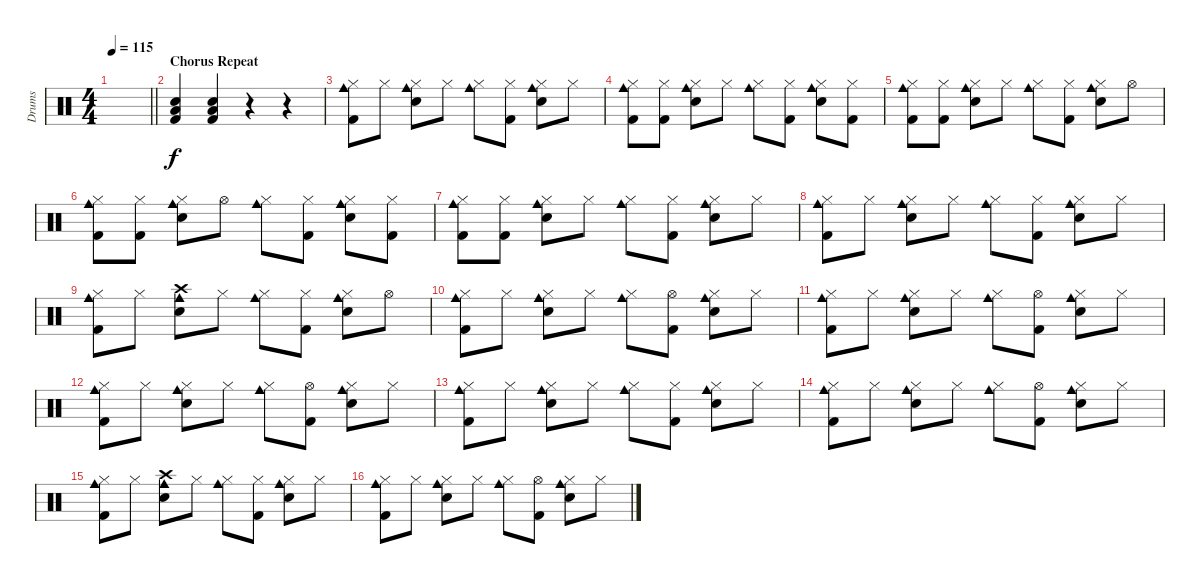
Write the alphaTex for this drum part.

\track ("Drums" "Drums") {instrument percussion}
\staff {score}
\articulation defaults
\ts (4 4)
\tempo 115
\clef neutral
\barLineRight lightlight
\ks c
|
\section ("" "Chorus Repeat")
("Hand Clap (hit)" "Low Floor Tom (hit)" "Kick (hit) 2").4 ("Hand Clap (hit)" "Low Floor Tom (hit)" "Kick (hit) 2").4 r.4 r.4 |
("Hi-Hat (closed)" "Cowbell medium (hit)" "Kick (hit) 2").8 "Hi-Hat (closed)".8 ("Hi-Hat (closed)" "Cowbell medium (hit)" "Snare (hit) 2").8 "Hi-Hat (closed)".8 ("Hi-Hat (closed)" "Cowbell medium (hit)").8 ("Hi-Hat (closed)" "Kick (hit) 2").8 ("Hi-Hat (closed)" "Cowbell medium (hit)" "Snare (hit) 2").8 "Hi-Hat (closed)".8 |
("Hi-Hat (closed)" "Cowbell medium (hit)" "Kick (hit) 2").8 ("Hi-Hat (closed)" "Kick (hit) 2").8 ("Hi-Hat (closed)" "Cowbell medium (hit)" "Snare (hit) 2").8 "Hi-Hat (closed)".8 ("Hi-Hat (closed)" "Cowbell medium (hit)").8 ("Hi-Hat (closed)" "Kick (hit) 2").8 ("Hi-Hat (closed)" "Cowbell medium (hit)" "Snare (hit) 2").8 ("Hi-Hat (closed)" "Kick (hit) 2").8 |
("Hi-Hat (closed)" "Cowbell medium (hit)" "Kick (hit) 2").8 ("Hi-Hat (closed)" "Kick (hit) 2").8 ("Hi-Hat (closed)" "Cowbell medium (hit)" "Snare (hit) 2").8 "Hi-Hat (closed)".8 ("Hi-Hat (closed)" "Cowbell medium (hit)").8 ("Hi-Hat (closed)" "Kick (hit) 2").8 ("Hi-Hat (closed)" "Cowbell medium (hit)" "Snare (hit) 2").8 "Hi-Hat (open)".8 |
("Hi-Hat (closed)" "Cowbell medium (hit)" "Kick (hit) 2").8 ("Hi-Hat (closed)" "Kick (hit) 2").8 ("Hi-Hat (closed)" "Cowbell medium (hit)" "Snare (hit) 2").8 "Hi-Hat (open)".8 ("Hi-Hat (closed)" "Cowbell medium (hit)").8 ("Hi-Hat (closed)" "Kick (hit) 2").8 ("Hi-Hat (closed)" "Cowbell medium (hit)" "Snare (hit) 2").8 ("Hi-Hat (closed)" "Kick (hit) 2").8 |
("Hi-Hat (closed)" "Cowbell medium (hit)" "Kick (hit) 2").8 ("Hi-Hat (closed)" "Kick (hit) 2").8 ("Hi-Hat (closed)" "Cowbell medium (hit)" "Snare (hit) 2").8 "Hi-Hat (closed)".8 ("Hi-Hat (closed)" "Cowbell medium (hit)").8 ("Hi-Hat (closed)" "Kick (hit) 2").8 ("Hi-Hat (closed)" "Cowbell medium (hit)" "Snare (hit) 2").8 "Hi-Hat (closed)".8 |
("Hi-Hat (closed)" "Cowbell medium (hit)" "Kick (hit) 2").8 "Hi-Hat (closed)".8 ("Hi-Hat (closed)" "Cowbell medium (hit)" "Snare (hit) 2").8 "Hi-Hat (closed)".8 ("Hi-Hat (closed)" "Cowbell medium (hit)").8 ("Hi-Hat (closed)" "Kick (hit) 2").8 ("Hi-Hat (closed)" "Cowbell medium (hit)" "Snare (hit) 2").8 "Hi-Hat (closed)".8 |
("Hi-Hat (closed)" "Cowbell medium (hit)" "Kick (hit) 2").8 "Hi-Hat (closed)".8 ("Crash high (hit)" "Cowbell medium (hit)" "Snare (hit) 2").8 "Hi-Hat (closed)".8 ("Hi-Hat (closed)" "Cowbell medium (hit)").8 ("Hi-Hat (closed)" "Kick (hit) 2").8 ("Hi-Hat (closed)" "Cowbell medium (hit)" "Snare (hit) 2").8 "Hi-Hat (open)".8 |
("Hi-Hat (closed)" "Cowbell medium (hit)" "Kick (hit) 2").8 "Hi-Hat (closed)".8 ("Hi-Hat (closed)" "Cowbell medium (hit)" "Snare (hit) 2").8 "Hi-Hat (closed)".8 ("Hi-Hat (closed)" "Cowbell medium (hit)").8 ("Hi-Hat (open)" "Kick (hit) 2").8 ("Hi-Hat (closed)" "Cowbell medium (hit)" "Snare (hit) 2").8 "Hi-Hat (closed)".8 |
("Hi-Hat (closed)" "Cowbell medium (hit)" "Kick (hit) 2").8 "Hi-Hat (closed)".8 ("Hi-Hat (closed)" "Cowbell medium (hit)" "Snare (hit) 2").8 "Hi-Hat (closed)".8 ("Hi-Hat (closed)" "Cowbell medium (hit)").8 ("Hi-Hat (open)" "Kick (hit) 2").8 ("Hi-Hat (closed)" "Cowbell medium (hit)" "Snare (hit) 2").8 "Hi-Hat (closed)".8 |
("Hi-Hat (closed)" "Cowbell medium (hit)" "Kick (hit) 2").8 "Hi-Hat (closed)".8 ("Hi-Hat (closed)" "Cowbell medium (hit)" "Snare (hit) 2").8 "Hi-Hat (closed)".8 ("Hi-Hat (closed)" "Cowbell medium (hit)").8 ("Hi-Hat (open)" "Kick (hit) 2").8 ("Hi-Hat (closed)" "Cowbell medium (hit)" "Snare (hit) 2").8 "Hi-Hat (closed)".8 |
("Hi-Hat (closed)" "Cowbell medium (hit)" "Kick (hit) 2").8 "Hi-Hat (closed)".8 ("Hi-Hat (closed)" "Cowbell medium (hit)" "Snare (hit) 2").8 "Hi-Hat (closed)".8 ("Hi-Hat (closed)" "Cowbell medium (hit)").8 ("Hi-Hat (closed)" "Kick (hit) 2").8 ("Hi-Hat (closed)" "Cowbell medium (hit)" "Snare (hit) 2").8 "Hi-Hat (closed)".8 |
("Hi-Hat (closed)" "Cowbell medium (hit)" "Kick (hit) 2").8 "Hi-Hat (closed)".8 ("Hi-Hat (closed)" "Cowbell medium (hit)" "Snare (hit) 2").8 "Hi-Hat (closed)".8 ("Hi-Hat (closed)" "Cowbell medium (hit)").8 ("Hi-Hat (open)" "Kick (hit) 2").8 ("Hi-Hat (closed)" "Cowbell medium (hit)" "Snare (hit) 2").8 "Hi-Hat (closed)".8 |
("Hi-Hat (closed)" "Cowbell medium (hit)" "Kick (hit) 2").8 "Hi-Hat (closed)".8 ("Crash high (hit)" "Cowbell medium (hit)" "Snare (hit) 2").8 "Hi-Hat (closed)".8 ("Hi-Hat (closed)" "Cowbell medium (hit)").8 ("Hi-Hat (closed)" "Kick (hit) 2").8 ("Hi-Hat (closed)" "Cowbell medium (hit)" "Snare (hit) 2").8 "Hi-Hat (closed)".8 |
("Hi-Hat (closed)" "Cowbell medium (hit)" "Kick (hit) 2").8{volume 0} "Hi-Hat (closed)".8 ("Hi-Hat (closed)" "Cowbell medium (hit)" "Snare (hit) 2").8 "Hi-Hat (closed)".8 ("Hi-Hat (closed)" "Cowbell medium (hit)").8 ("Hi-Hat (open)" "Kick (hit) 2").8 ("Hi-Hat (closed)" "Cowbell medium (hit)" "Snare (hit) 2").8 "Hi-Hat (closed)".8
